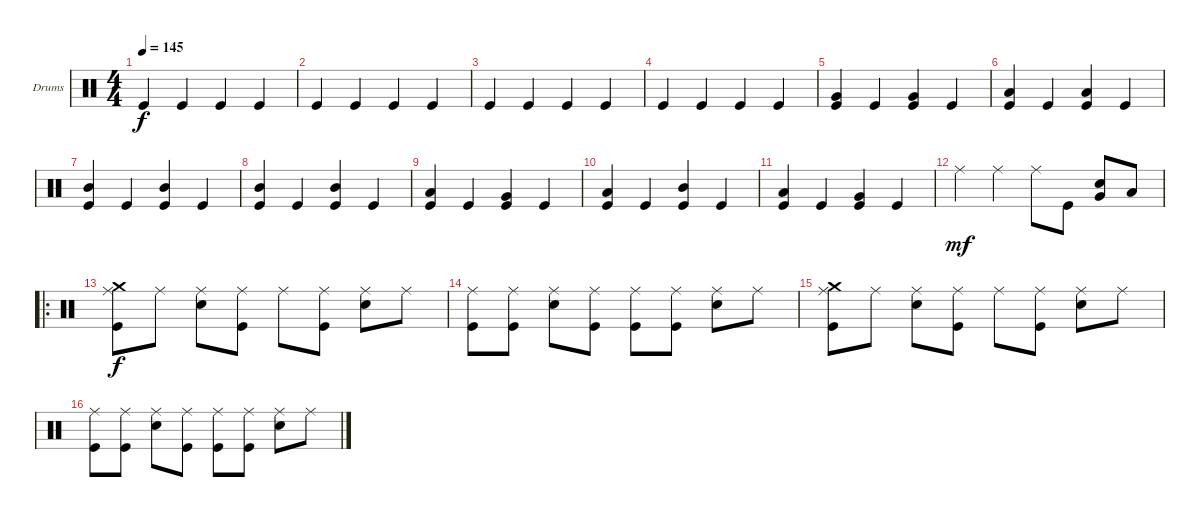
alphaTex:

\defaultSystemsLayout 4
\bracketExtendMode groupsimilarinstruments
\firstSystemTrackNameOrientation horizontal
\otherSystemsTrackNameOrientation horizontal
\track ("Nikola" "Drums") {instrument percussion}
\staff {score}
\articulation defaults
\ts (4 4)
\tempo 145
\clef neutral
\ks c "Kick (hit)".4{dy f} "Kick (hit)".4 "Kick (hit)".4 "Kick (hit)".4
|
"Kick (hit)".4 "Kick (hit)".4 "Kick (hit)".4 "Kick (hit)".4 |
"Kick (hit)".4 "Kick (hit)".4 "Kick (hit)".4 "Kick (hit)".4 |
"Kick (hit)".4 "Kick (hit)".4 "Kick (hit)".4 "Kick (hit)".4 |
("Kick (hit)" "Very Low Tom (hit)").4 "Kick (hit)".4 ("Kick (hit)" "Very Low Tom (hit)").4 "Kick (hit)".4 |
("Kick (hit)" "Low Tom (hit)").4 "Kick (hit)".4 ("Kick (hit)" "Low Tom (hit)").4 "Kick (hit)".4 |
("Kick (hit)" "Mid Tom (hit)").4 "Kick (hit)".4 ("Kick (hit)" "Mid Tom (hit)").4 "Kick (hit)".4 |
("Kick (hit)" "Mid Tom (hit)").4 "Kick (hit)".4 ("Kick (hit)" "Mid Tom (hit)").4 "Kick (hit)".4 |
("Kick (hit)" "Low Tom (hit)").4 "Kick (hit)".4 ("Kick (hit)" "Very Low Tom (hit)").4 "Kick (hit)".4 |
("Kick (hit)" "Low Tom (hit)").4 "Kick (hit)".4 ("Kick (hit)" "Mid Tom (hit)").4 "Kick (hit)".4 |
("Kick (hit)" "Low Tom (hit)").4 "Kick (hit)".4 ("Kick (hit)" "Very Low Tom (hit)").4 "Kick (hit)".4 |
"Ride (middle)".4{dy mf} "Ride (middle)".4 "Ride (middle)".8 "Kick (hit)".8 ("Snare (hit) 2" "Very Low Tom (hit)").8 "Low Tom (hit)".8 |
\ro
("Kick (hit)" "Ride (middle)" "Crash medium (hit)").8{dy f} "Ride (middle)".8 ("Snare (hit) 2" "Ride (middle)").8 ("Kick (hit)" "Ride (middle)").8 "Ride (middle)".8 ("Kick (hit)" "Ride (middle)").8 ("Snare (hit) 2" "Ride (middle)").8 "Ride (middle)".8 |
("Kick (hit)" "Ride (middle)").8 ("Kick (hit)" "Ride (middle)").8 ("Snare (hit) 2" "Ride (middle)").8 ("Kick (hit)" "Ride (middle)").8 ("Kick (hit)" "Ride (middle)").8 ("Kick (hit)" "Ride (middle)").8 ("Snare (hit) 2" "Ride (middle)").8 "Ride (middle)".8 |
("Crash medium (hit)" "Kick (hit)" "Ride (middle)").8 "Ride (middle)".8 ("Snare (hit) 2" "Ride (middle)").8 ("Kick (hit)" "Ride (middle)").8 "Ride (middle)".8 ("Kick (hit)" "Ride (middle)").8 ("Snare (hit) 2" "Ride (middle)").8 "Ride (middle)".8 |
("Kick (hit)" "Ride (middle)").8 ("Kick (hit)" "Ride (middle)").8 ("Snare (hit) 2" "Ride (middle)").8 ("Kick (hit)" "Ride (middle)").8 ("Kick (hit)" "Ride (middle)").8 ("Kick (hit)" "Ride (middle)").8 ("Snare (hit) 2" "Ride (middle)").8 "Ride (middle)".8
